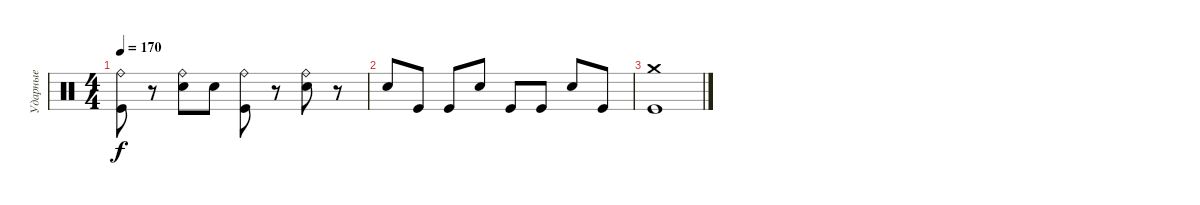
\track ("Ударные" "Ударные") {instrument percussion}
\staff {score}
\articulation defaults
\ts (4 4)
\tempo 170
\clef neutral
\ks c
("Ride (bell)" "Kick (hit)").8{dy f} r.8 ("Ride (bell)" "Electric Snare (hit)").8 "Electric Snare (hit)".8 ("Ride (bell)" "Kick (hit)").8 r.8 ("Ride (bell)" "Electric Snare (hit)").8 r.8 |
"Electric Snare (hit)".8 "Kick (hit)".8 "Kick (hit)".8 "Electric Snare (hit)".8 "Kick (hit)".8 "Kick (hit)".8 "Electric Snare (hit)".8 "Kick (hit)".8 |
("Crash medium (hit)" "Kick (hit)").1
